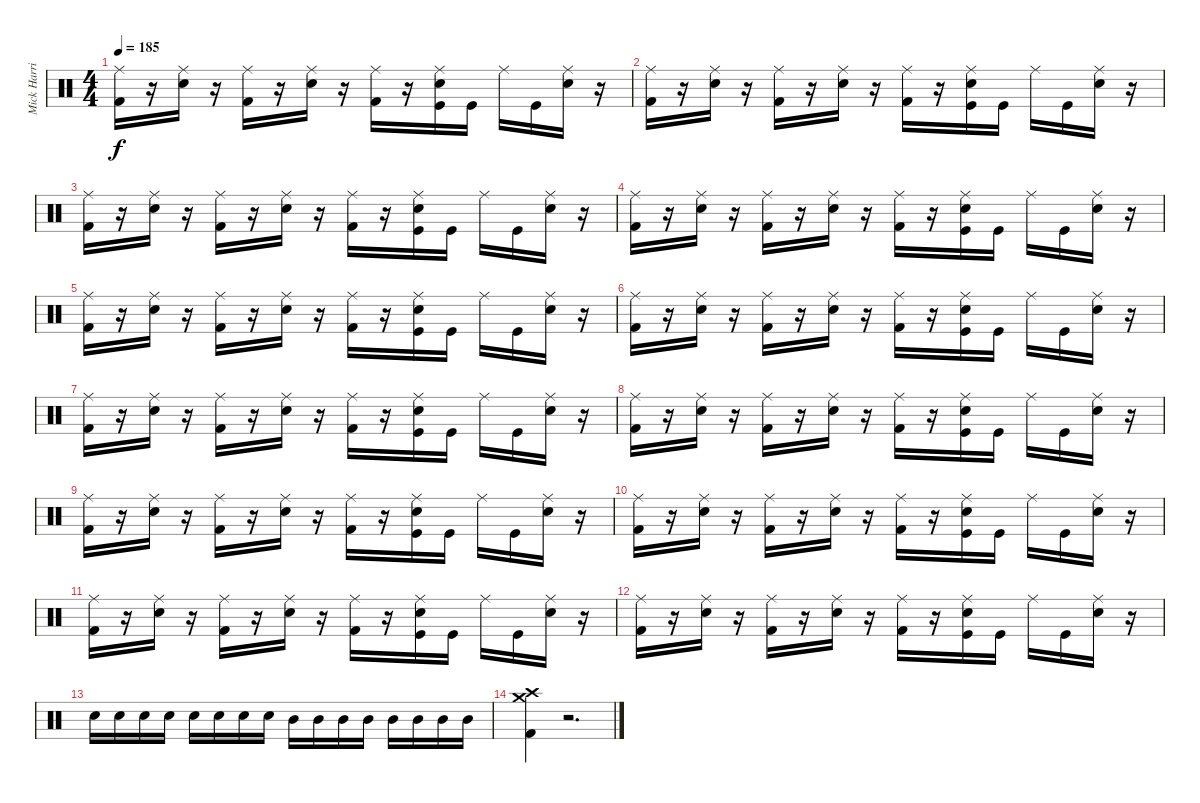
\track ("Mick Harris (Drums)" "Mick Harri") {instrument percussion}
\staff {score}
\articulation defaults
\ts (4 4)
\tempo 185
\clef neutral
\ks c
("Kick (hit) 2" "Ride (middle)").16{dy f} r.16 ("Electric Snare (hit)" "Ride (middle)").16 r.16 ("Kick (hit) 2" "Ride (middle)").16 r.16 ("Electric Snare (hit)" "Ride (middle)").16 r.16 ("Kick (hit) 2" "Ride (middle)").16 r.16 ("Kick (hit)" "Electric Snare (hit)" "Ride (middle)").16 "Kick (hit)".16 "Ride (middle)".16 "Kick (hit)".16 ("Electric Snare (hit)" "Ride (middle)").16 r.16 |
("Kick (hit) 2" "Ride (middle)").16 r.16 ("Electric Snare (hit)" "Ride (middle)").16 r.16 ("Kick (hit) 2" "Ride (middle)").16 r.16 ("Electric Snare (hit)" "Ride (middle)").16 r.16 ("Kick (hit) 2" "Ride (middle)").16 r.16 ("Kick (hit)" "Electric Snare (hit)" "Ride (middle)").16 "Kick (hit)".16 "Ride (middle)".16 "Kick (hit)".16 ("Electric Snare (hit)" "Ride (middle)").16 r.16 |
("Kick (hit) 2" "Ride (middle)").16 r.16 ("Electric Snare (hit)" "Ride (middle)").16 r.16 ("Kick (hit) 2" "Ride (middle)").16 r.16 ("Electric Snare (hit)" "Ride (middle)").16 r.16 ("Kick (hit) 2" "Ride (middle)").16 r.16 ("Kick (hit)" "Electric Snare (hit)" "Ride (middle)").16 "Kick (hit)".16 "Ride (middle)".16 "Kick (hit)".16 ("Electric Snare (hit)" "Ride (middle)").16 r.16 |
("Kick (hit) 2" "Ride (middle)").16 r.16 ("Electric Snare (hit)" "Ride (middle)").16 r.16 ("Kick (hit) 2" "Ride (middle)").16 r.16 ("Electric Snare (hit)" "Ride (middle)").16 r.16 ("Kick (hit) 2" "Ride (middle)").16 r.16 ("Kick (hit)" "Electric Snare (hit)" "Ride (middle)").16 "Kick (hit)".16 "Ride (middle)".16 "Kick (hit)".16 ("Electric Snare (hit)" "Ride (middle)").16 r.16 |
("Kick (hit) 2" "Ride (middle)").16 r.16 ("Electric Snare (hit)" "Ride (middle)").16 r.16 ("Kick (hit) 2" "Ride (middle)").16 r.16 ("Electric Snare (hit)" "Ride (middle)").16 r.16 ("Kick (hit) 2" "Ride (middle)").16 r.16 ("Kick (hit)" "Electric Snare (hit)" "Ride (middle)").16 "Kick (hit)".16 "Ride (middle)".16 "Kick (hit)".16 ("Electric Snare (hit)" "Ride (middle)").16 r.16 |
("Kick (hit) 2" "Ride (middle)").16 r.16 ("Electric Snare (hit)" "Ride (middle)").16 r.16 ("Kick (hit) 2" "Ride (middle)").16 r.16 ("Electric Snare (hit)" "Ride (middle)").16 r.16 ("Kick (hit) 2" "Ride (middle)").16 r.16 ("Kick (hit)" "Electric Snare (hit)" "Ride (middle)").16 "Kick (hit)".16 "Ride (middle)".16 "Kick (hit)".16 ("Electric Snare (hit)" "Ride (middle)").16 r.16 |
("Kick (hit) 2" "Ride (middle)").16 r.16 ("Electric Snare (hit)" "Ride (middle)").16 r.16 ("Kick (hit) 2" "Ride (middle)").16 r.16 ("Electric Snare (hit)" "Ride (middle)").16 r.16 ("Kick (hit) 2" "Ride (middle)").16 r.16 ("Kick (hit)" "Electric Snare (hit)" "Ride (middle)").16 "Kick (hit)".16 "Ride (middle)".16 "Kick (hit)".16 ("Electric Snare (hit)" "Ride (middle)").16 r.16 |
("Kick (hit) 2" "Ride (middle)").16 r.16 ("Electric Snare (hit)" "Ride (middle)").16 r.16 ("Kick (hit) 2" "Ride (middle)").16 r.16 ("Electric Snare (hit)" "Ride (middle)").16 r.16 ("Kick (hit) 2" "Ride (middle)").16 r.16 ("Kick (hit)" "Electric Snare (hit)" "Ride (middle)").16 "Kick (hit)".16 "Ride (middle)".16 "Kick (hit)".16 ("Electric Snare (hit)" "Ride (middle)").16 r.16 |
("Kick (hit) 2" "Ride (middle)").16 r.16 ("Electric Snare (hit)" "Ride (middle)").16 r.16 ("Kick (hit) 2" "Ride (middle)").16 r.16 ("Electric Snare (hit)" "Ride (middle)").16 r.16 ("Kick (hit) 2" "Ride (middle)").16 r.16 ("Kick (hit)" "Electric Snare (hit)" "Ride (middle)").16 "Kick (hit)".16 "Ride (middle)".16 "Kick (hit)".16 ("Electric Snare (hit)" "Ride (middle)").16 r.16 |
("Kick (hit) 2" "Ride (middle)").16 r.16 ("Electric Snare (hit)" "Ride (middle)").16 r.16 ("Kick (hit) 2" "Ride (middle)").16 r.16 ("Electric Snare (hit)" "Ride (middle)").16 r.16 ("Kick (hit) 2" "Ride (middle)").16 r.16 ("Kick (hit)" "Electric Snare (hit)" "Ride (middle)").16 "Kick (hit)".16 "Ride (middle)".16 "Kick (hit)".16 ("Electric Snare (hit)" "Ride (middle)").16 r.16 |
("Kick (hit) 2" "Ride (middle)").16 r.16 ("Electric Snare (hit)" "Ride (middle)").16 r.16 ("Kick (hit) 2" "Ride (middle)").16 r.16 ("Electric Snare (hit)" "Ride (middle)").16 r.16 ("Kick (hit) 2" "Ride (middle)").16 r.16 ("Kick (hit)" "Electric Snare (hit)" "Ride (middle)").16 "Kick (hit)".16 "Ride (middle)".16 "Kick (hit)".16 ("Electric Snare (hit)" "Ride (middle)").16 r.16 |
("Kick (hit) 2" "Ride (middle)").16 r.16 ("Electric Snare (hit)" "Ride (middle)").16 r.16 ("Kick (hit) 2" "Ride (middle)").16 r.16 ("Electric Snare (hit)" "Ride (middle)").16 r.16 ("Kick (hit) 2" "Ride (middle)").16 r.16 ("Kick (hit)" "Electric Snare (hit)" "Ride (middle)").16 "Kick (hit)".16 "Ride (middle)".16 "Kick (hit)".16 ("Electric Snare (hit)" "Ride (middle)").16 r.16 |
"Electric Snare (hit)".16 "Electric Snare (hit)".16 "Electric Snare (hit)".16 "Electric Snare (hit)".16 "Electric Snare (hit)".16 "Electric Snare (hit)".16 "Electric Snare (hit)".16 "Electric Snare (hit)".16 "Mid Tom (hit)".16 "Mid Tom (hit)".16 "Mid Tom (hit)".16 "Mid Tom (hit)".16 "Mid Tom (hit)".16 "Mid Tom (hit)".16 "Mid Tom (hit)".16 "Mid Tom (hit)".16 |
("Kick (hit) 2" "Crash high (hit)" "Crash medium (hit)").4 r.2{d}
